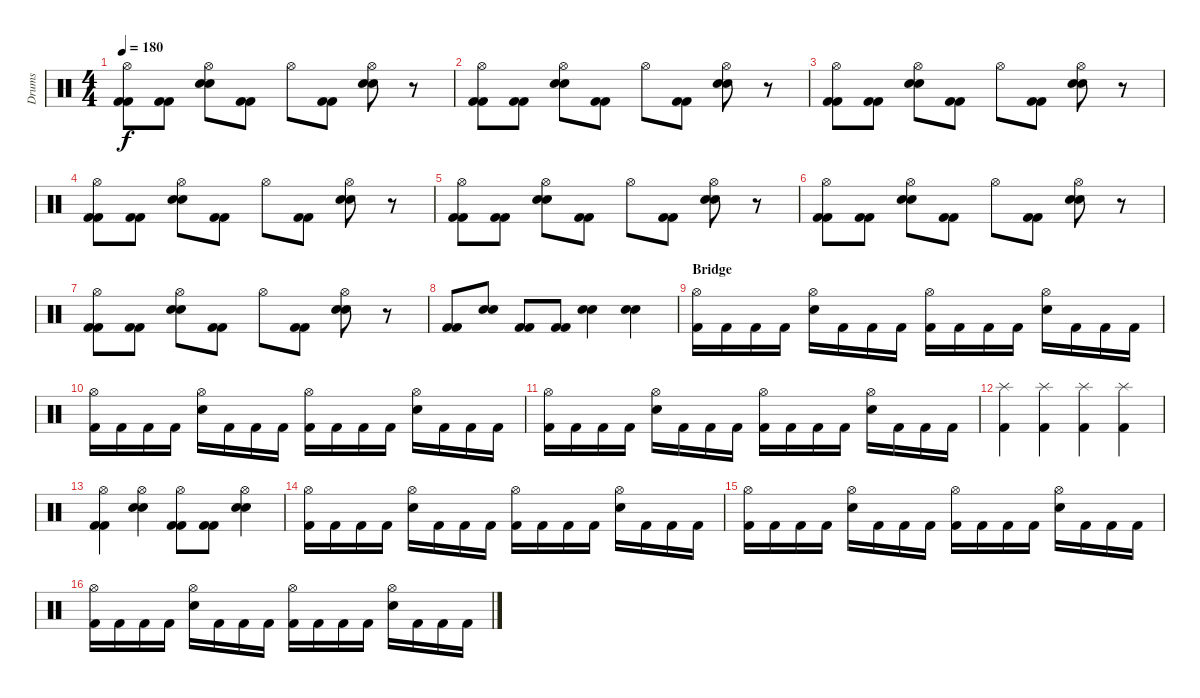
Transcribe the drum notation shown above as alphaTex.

\track ("Drums" "Drums") {instrument percussion}
\staff {score}
\articulation defaults
\ts (4 4)
\tempo 180
\clef neutral
\ks c
("Hi-Hat (open)" "Kick (hit) 2" "Kick (hit) 2").8{dy f} ("Kick (hit) 2" "Kick (hit) 2").8 ("Hi-Hat (open)" "Snare (hit) 2" "Snare (hit) 2").8 ("Kick (hit) 2" "Kick (hit) 2").8 "Hi-Hat (open)".8 ("Kick (hit) 2" "Kick (hit) 2").8 ("Hi-Hat (open)" "Snare (hit) 2" "Snare (hit) 2").8 r.8 |
("Hi-Hat (open)" "Kick (hit) 2" "Kick (hit) 2").8 ("Kick (hit) 2" "Kick (hit) 2").8 ("Hi-Hat (open)" "Snare (hit) 2" "Snare (hit) 2").8 ("Kick (hit) 2" "Kick (hit) 2").8 "Hi-Hat (open)".8 ("Kick (hit) 2" "Kick (hit) 2").8 ("Hi-Hat (open)" "Snare (hit) 2" "Snare (hit) 2").8 r.8 |
("Hi-Hat (open)" "Kick (hit) 2" "Kick (hit) 2").8 ("Kick (hit) 2" "Kick (hit) 2").8 ("Hi-Hat (open)" "Snare (hit) 2" "Snare (hit) 2").8 ("Kick (hit) 2" "Kick (hit) 2").8 "Hi-Hat (open)".8 ("Kick (hit) 2" "Kick (hit) 2").8 ("Hi-Hat (open)" "Snare (hit) 2" "Snare (hit) 2").8 r.8 |
("Hi-Hat (open)" "Kick (hit) 2" "Kick (hit) 2").8 ("Kick (hit) 2" "Kick (hit) 2").8 ("Hi-Hat (open)" "Snare (hit) 2" "Snare (hit) 2").8 ("Kick (hit) 2" "Kick (hit) 2").8 "Hi-Hat (open)".8 ("Kick (hit) 2" "Kick (hit) 2").8 ("Hi-Hat (open)" "Snare (hit) 2" "Snare (hit) 2").8 r.8 |
("Hi-Hat (open)" "Kick (hit) 2" "Kick (hit) 2").8 ("Kick (hit) 2" "Kick (hit) 2").8 ("Hi-Hat (open)" "Snare (hit) 2" "Snare (hit) 2").8 ("Kick (hit) 2" "Kick (hit) 2").8 "Hi-Hat (open)".8 ("Kick (hit) 2" "Kick (hit) 2").8 ("Hi-Hat (open)" "Snare (hit) 2" "Snare (hit) 2").8 r.8 |
("Hi-Hat (open)" "Kick (hit) 2" "Kick (hit) 2").8 ("Kick (hit) 2" "Kick (hit) 2").8 ("Hi-Hat (open)" "Snare (hit) 2" "Snare (hit) 2").8 ("Kick (hit) 2" "Kick (hit) 2").8 "Hi-Hat (open)".8 ("Kick (hit) 2" "Kick (hit) 2").8 ("Hi-Hat (open)" "Snare (hit) 2" "Snare (hit) 2").8 r.8 |
("Hi-Hat (open)" "Kick (hit) 2" "Kick (hit) 2").8 ("Kick (hit) 2" "Kick (hit) 2").8 ("Hi-Hat (open)" "Snare (hit) 2" "Snare (hit) 2").8 ("Kick (hit) 2" "Kick (hit) 2").8 "Hi-Hat (open)".8 ("Kick (hit) 2" "Kick (hit) 2").8 ("Hi-Hat (open)" "Snare (hit) 2" "Snare (hit) 2").8 r.8 |
("Kick (hit) 2" "Kick (hit) 2").8 ("Snare (hit) 2" "Snare (hit) 2").8 ("Kick (hit) 2" "Kick (hit) 2").8 ("Kick (hit) 2" "Kick (hit) 2").8 ("Snare (hit) 2" "Snare (hit) 2").4 ("Snare (hit) 2" "Snare (hit) 2").4 |
\section ("" "Bridge")
("Hi-Hat (open)" "Kick (hit) 2").16 "Kick (hit) 2".16 "Kick (hit) 2".16 "Kick (hit) 2".16 ("Hi-Hat (open)" "Snare (hit) 2").16 "Kick (hit) 2".16 "Kick (hit) 2".16 "Kick (hit) 2".16 ("Hi-Hat (open)" "Kick (hit) 2").16 "Kick (hit) 2".16 "Kick (hit) 2".16 "Kick (hit) 2".16 ("Hi-Hat (open)" "Snare (hit) 2").16 "Kick (hit) 2".16 "Kick (hit) 2".16 "Kick (hit) 2".16 |
("Hi-Hat (open)" "Kick (hit) 2").16 "Kick (hit) 2".16 "Kick (hit) 2".16 "Kick (hit) 2".16 ("Hi-Hat (open)" "Snare (hit) 2").16 "Kick (hit) 2".16 "Kick (hit) 2".16 "Kick (hit) 2".16 ("Hi-Hat (open)" "Kick (hit) 2").16 "Kick (hit) 2".16 "Kick (hit) 2".16 "Kick (hit) 2".16 ("Hi-Hat (open)" "Snare (hit) 2").16 "Kick (hit) 2".16 "Kick (hit) 2".16 "Kick (hit) 2".16 |
("Hi-Hat (open)" "Kick (hit) 2").16 "Kick (hit) 2".16 "Kick (hit) 2".16 "Kick (hit) 2".16 ("Hi-Hat (open)" "Snare (hit) 2").16 "Kick (hit) 2".16 "Kick (hit) 2".16 "Kick (hit) 2".16 ("Hi-Hat (open)" "Kick (hit) 2").16 "Kick (hit) 2".16 "Kick (hit) 2".16 "Kick (hit) 2".16 ("Hi-Hat (open)" "Snare (hit) 2").16 "Kick (hit) 2".16 "Kick (hit) 2".16 "Kick (hit) 2".16 |
("Splash (hit)" "Kick (hit) 2").4 ("Splash (hit)" "Kick (hit) 2").4 ("Splash (hit)" "Kick (hit) 2").4 ("Splash (hit)" "Kick (hit) 2").4 |
("Hi-Hat (open)" "Kick (hit) 2" "Kick (hit) 2").4 ("Hi-Hat (open)" "Snare (hit) 2" "Snare (hit) 2").4 ("Hi-Hat (open)" "Kick (hit) 2" "Kick (hit) 2").8 ("Kick (hit) 2" "Kick (hit) 2").8 ("Hi-Hat (open)" "Snare (hit) 2" "Snare (hit) 2").4 |
("Hi-Hat (open)" "Kick (hit) 2").16 "Kick (hit) 2".16 "Kick (hit) 2".16 "Kick (hit) 2".16 ("Hi-Hat (open)" "Snare (hit) 2").16 "Kick (hit) 2".16 "Kick (hit) 2".16 "Kick (hit) 2".16 ("Hi-Hat (open)" "Kick (hit) 2").16 "Kick (hit) 2".16 "Kick (hit) 2".16 "Kick (hit) 2".16 ("Hi-Hat (open)" "Snare (hit) 2").16 "Kick (hit) 2".16 "Kick (hit) 2".16 "Kick (hit) 2".16 |
("Hi-Hat (open)" "Kick (hit) 2").16 "Kick (hit) 2".16 "Kick (hit) 2".16 "Kick (hit) 2".16 ("Hi-Hat (open)" "Snare (hit) 2").16 "Kick (hit) 2".16 "Kick (hit) 2".16 "Kick (hit) 2".16 ("Hi-Hat (open)" "Kick (hit) 2").16 "Kick (hit) 2".16 "Kick (hit) 2".16 "Kick (hit) 2".16 ("Hi-Hat (open)" "Snare (hit) 2").16 "Kick (hit) 2".16 "Kick (hit) 2".16 "Kick (hit) 2".16 |
("Hi-Hat (open)" "Kick (hit) 2").16 "Kick (hit) 2".16 "Kick (hit) 2".16 "Kick (hit) 2".16 ("Hi-Hat (open)" "Snare (hit) 2").16 "Kick (hit) 2".16 "Kick (hit) 2".16 "Kick (hit) 2".16 ("Hi-Hat (open)" "Kick (hit) 2").16 "Kick (hit) 2".16 "Kick (hit) 2".16 "Kick (hit) 2".16 ("Hi-Hat (open)" "Snare (hit) 2").16 "Kick (hit) 2".16 "Kick (hit) 2".16 "Kick (hit) 2".16
